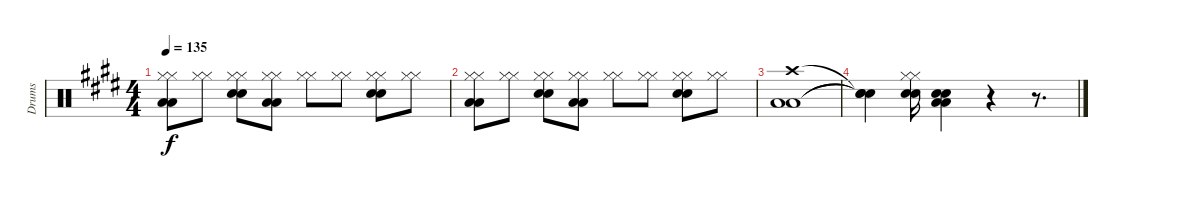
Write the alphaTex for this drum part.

\track ("Drums" "Drums") {instrument percussion}
\staff {score}
\articulation defaults
\ts (4 4)
\tempo 135
\clef neutral
\ks e
("Hi-Hat (closed)" "Hi-Hat (closed)" "Low Floor Tom (hit)" "Low Floor Tom (hit)").8{dy f} ("Hi-Hat (closed)" "Hi-Hat (closed)").8 ("Hi-Hat (closed)" "Hi-Hat (closed)" "Electric Snare (hit)" "Electric Snare (hit)").8 ("Hi-Hat (closed)" "Hi-Hat (closed)" "Low Floor Tom (hit)" "Low Floor Tom (hit)").8 ("Hi-Hat (closed)" "Hi-Hat (closed)").8 ("Hi-Hat (closed)" "Hi-Hat (closed)").8 ("Hi-Hat (closed)" "Hi-Hat (closed)" "Electric Snare (hit)" "Electric Snare (hit)").8 ("Hi-Hat (closed)" "Hi-Hat (closed)").8 |
("Hi-Hat (closed)" "Hi-Hat (closed)" "Low Floor Tom (hit)" "Low Floor Tom (hit)").8 ("Hi-Hat (closed)" "Hi-Hat (closed)").8 ("Hi-Hat (closed)" "Hi-Hat (closed)" "Electric Snare (hit)" "Electric Snare (hit)").8 ("Hi-Hat (closed)" "Hi-Hat (closed)" "Low Floor Tom (hit)" "Low Floor Tom (hit)").8 ("Hi-Hat (closed)" "Hi-Hat (closed)").8 ("Hi-Hat (closed)" "Hi-Hat (closed)").8 ("Hi-Hat (closed)" "Hi-Hat (closed)" "Electric Snare (hit)" "Electric Snare (hit)").8 ("Hi-Hat (closed)" "Hi-Hat (closed)").8 |
("Crash high (hit)" "Low Floor Tom (hit)" "Low Floor Tom (hit)").1 |
("Snare (hit)"{t} "Snare (hit)"{t} "Snare (hit)"{t}).4 ("Hi-Hat (closed)" "Hi-Hat (closed)" "Electric Snare (hit)" "Electric Snare (hit)").16 ("Low Tom (hit)" "Low Tom (hit)" "Electric Snare (hit)" "Electric Snare (hit)").4 r.4 r.8{d}
